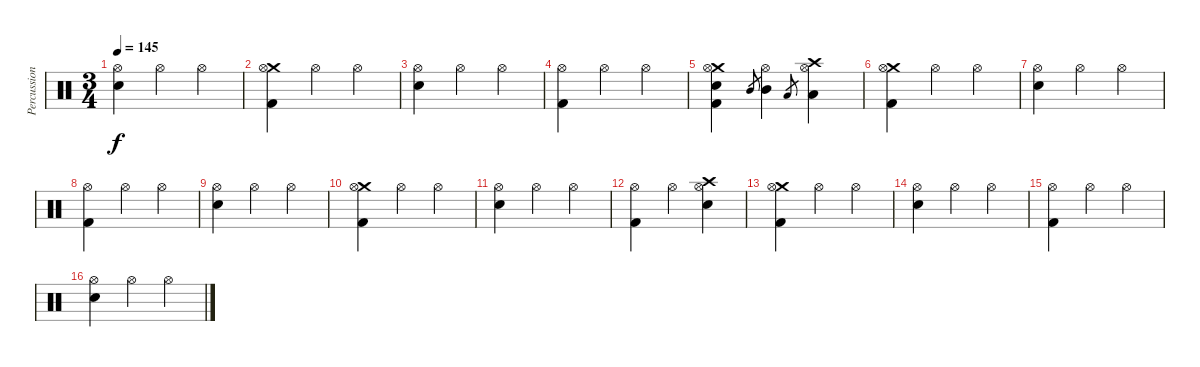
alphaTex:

\track ("Percussion" "Percussion") {instrument percussion}
\staff {score}
\articulation defaults
\ts (3 4)
\tempo 145
\clef neutral
\ks c
("Hi-Hat (open)" "Electric Snare (hit)").4{dy f} "Hi-Hat (open)".4 "Hi-Hat (open)".4 |
("Crash medium (hit)" "Hi-Hat (open)" "Kick (hit) 2").4 "Hi-Hat (open)".4 "Hi-Hat (open)".4 |
("Hi-Hat (open)" "Electric Snare (hit)").4 "Hi-Hat (open)".4 "Hi-Hat (open)".4 |
("Hi-Hat (open)" "Kick (hit) 2").4 "Hi-Hat (open)".4 "Hi-Hat (open)".4 |
("Crash medium (hit)" "Hi-Hat (open)" "Electric Snare (hit)" "Kick (hit) 2").4 "Mid Tom (hit)".8{gr} ("Hi-Hat (open)" "Mid Tom (hit)").4 "Low Tom (hit)".8{gr} ("Crash high (hit)" "Hi-Hat (open)" "Low Tom (hit)").4 |
("Crash medium (hit)" "Hi-Hat (open)" "Kick (hit) 2").4 "Hi-Hat (open)".4 "Hi-Hat (open)".4 |
("Hi-Hat (open)" "Electric Snare (hit)").4 "Hi-Hat (open)".4 "Hi-Hat (open)".4 |
("Hi-Hat (open)" "Kick (hit) 2").4 "Hi-Hat (open)".4 "Hi-Hat (open)".4 |
("Hi-Hat (open)" "Electric Snare (hit)").4 "Hi-Hat (open)".4 "Hi-Hat (open)".4 |
("Crash medium (hit)" "Hi-Hat (open)" "Kick (hit) 2").4 "Hi-Hat (open)".4 "Hi-Hat (open)".4 |
("Hi-Hat (open)" "Electric Snare (hit)").4 "Hi-Hat (open)".4 "Hi-Hat (open)".4 |
("Hi-Hat (open)" "Kick (hit) 2").4 "Hi-Hat (open)".4 ("Crash high (hit)" "Hi-Hat (open)" "Electric Snare (hit)").4 |
("Crash medium (hit)" "Hi-Hat (open)" "Kick (hit) 2").4 "Hi-Hat (open)".4 "Hi-Hat (open)".4 |
("Hi-Hat (open)" "Electric Snare (hit)").4 "Hi-Hat (open)".4 "Hi-Hat (open)".4 |
("Hi-Hat (open)" "Kick (hit) 2").4 "Hi-Hat (open)".4 "Hi-Hat (open)".4 |
("Hi-Hat (open)" "Electric Snare (hit)").4 "Hi-Hat (open)".4 "Hi-Hat (open)".4
